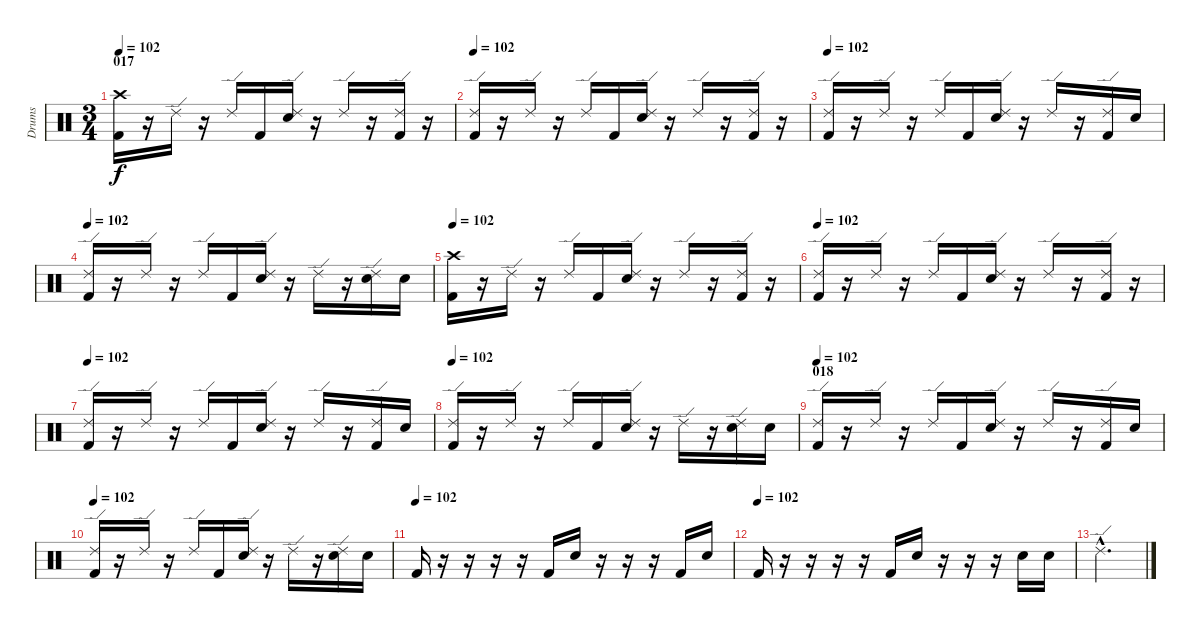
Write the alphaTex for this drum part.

\track ("Drums" "Drums") {instrument percussion}
\staff {score}
\articulation defaults
\ts (3 4)
\section ("" "017")
\tempo 102
\clef neutral
\ks c
("Kick (hit) 2" "Crash high (hit)").16{dy f} r.16 "Ride (edge) 2".16 r.16 "Ride (edge) 2".16 "Kick (hit) 2".16 ("Electric Snare (hit)" "Ride (edge) 2").16 r.16 "Ride (edge) 2".16 r.16 ("Kick (hit) 2" "Ride (edge) 2").16 r.16 |
\tempo 102
("Kick (hit) 2" "Ride (edge) 2").16 r.16 "Ride (edge) 2".16 r.16 "Ride (edge) 2".16 "Kick (hit) 2".16 ("Electric Snare (hit)" "Ride (edge) 2").16 r.16 "Ride (edge) 2".16 r.16 ("Kick (hit) 2" "Ride (edge) 2").16 r.16 |
\tempo 102
("Kick (hit) 2" "Ride (edge) 2").16 r.16 "Ride (edge) 2".16 r.16 "Ride (edge) 2".16 "Kick (hit) 2".16 ("Electric Snare (hit)" "Ride (edge) 2").16 r.16 "Ride (edge) 2".16 r.16 ("Kick (hit) 2" "Ride (edge) 2").16 "Electric Snare (hit)".16 |
\tempo 102
("Kick (hit) 2" "Ride (edge) 2").16 r.16 "Ride (edge) 2".16 r.16 "Ride (edge) 2".16 "Kick (hit) 2".16 ("Electric Snare (hit)" "Ride (edge) 2").16 r.16 "Ride (edge) 2".16 r.16 ("Electric Snare (hit)" "Ride (edge) 2").16 "Electric Snare (hit)".16 |
\tempo 102
("Kick (hit) 2" "Crash high (hit)").16 r.16 "Ride (edge) 2".16 r.16 "Ride (edge) 2".16 "Kick (hit) 2".16 ("Electric Snare (hit)" "Ride (edge) 2").16 r.16 "Ride (edge) 2".16 r.16 ("Kick (hit) 2" "Ride (edge) 2").16 r.16 |
\tempo 102
("Kick (hit) 2" "Ride (edge) 2").16 r.16 "Ride (edge) 2".16 r.16 "Ride (edge) 2".16 "Kick (hit) 2".16 ("Electric Snare (hit)" "Ride (edge) 2").16 r.16 "Ride (edge) 2".16 r.16 ("Kick (hit) 2" "Ride (edge) 2").16 r.16 |
\tempo 102
("Kick (hit) 2" "Ride (edge) 2").16 r.16 "Ride (edge) 2".16 r.16 "Ride (edge) 2".16 "Kick (hit) 2".16 ("Electric Snare (hit)" "Ride (edge) 2").16 r.16 "Ride (edge) 2".16 r.16 ("Kick (hit) 2" "Ride (edge) 2").16 "Electric Snare (hit)".16 |
\tempo 102
("Kick (hit) 2" "Ride (edge) 2").16 r.16 "Ride (edge) 2".16 r.16 "Ride (edge) 2".16 "Kick (hit) 2".16 ("Electric Snare (hit)" "Ride (edge) 2").16 r.16 "Ride (edge) 2".16 r.16 ("Electric Snare (hit)" "Ride (edge) 2").16 "Electric Snare (hit)".16 |
\section ("" "018")
\tempo 102
("Kick (hit) 2" "Ride (edge) 2").16 r.16 "Ride (edge) 2".16 r.16 "Ride (edge) 2".16 "Kick (hit) 2".16 ("Electric Snare (hit)" "Ride (edge) 2").16 r.16 "Ride (edge) 2".16 r.16 ("Kick (hit) 2" "Ride (edge) 2").16 "Electric Snare (hit)".16 |
\tempo 102
("Kick (hit) 2" "Ride (edge) 2").16 r.16 "Ride (edge) 2".16 r.16 "Ride (edge) 2".16 "Kick (hit) 2".16 ("Electric Snare (hit)" "Ride (edge) 2").16 r.16 "Ride (edge) 2".16 r.16 ("Electric Snare (hit)" "Ride (edge) 2").16 "Electric Snare (hit)".16 |
\tempo (102)
"Kick (hit) 2".16 r.16 r.16 r.16 r.16 "Kick (hit) 2".16 "Electric Snare (hit)".16 r.16 r.16 r.16 "Kick (hit) 2".16 "Electric Snare (hit)".16 |
\tempo (102)
"Kick (hit) 2".16 r.16 r.16 r.16 r.16 "Kick (hit) 2".16 "Electric Snare (hit)".16 r.16 r.16 r.16 "Electric Snare (hit)".16 "Electric Snare (hit)".16 |
"Ride (edge) 2"{hac}.2{d}
